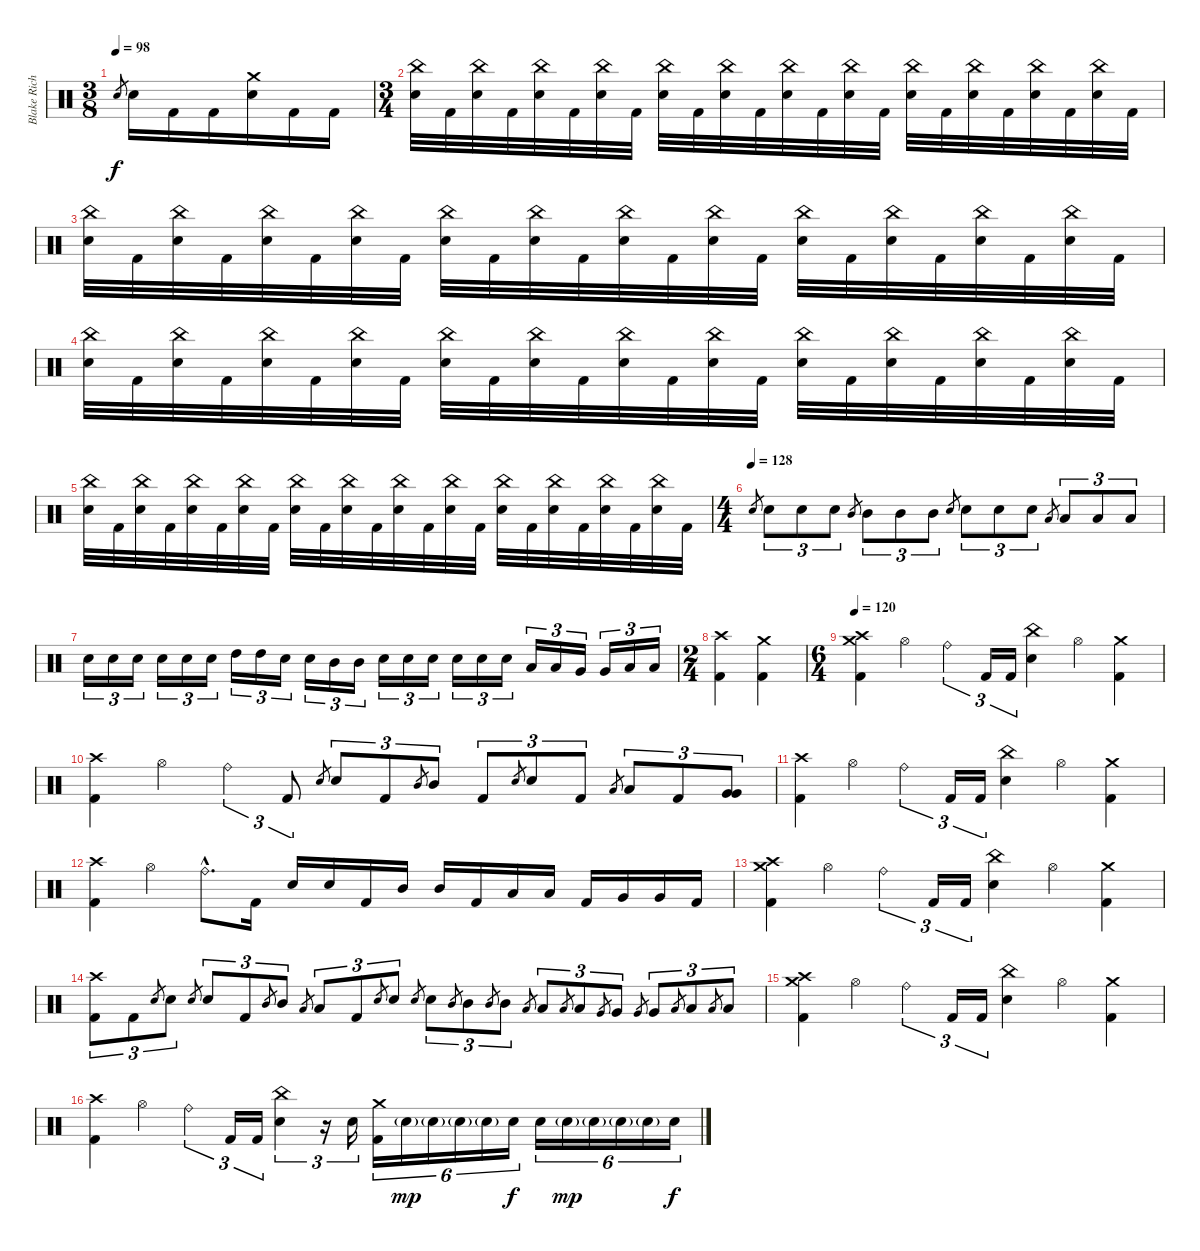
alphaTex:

\track ("Blake Richardson - Drums" "Blake Rich") {instrument percussion}
\staff {score}
\articulation defaults
\ts (3 8)
\tempo 98
\clef neutral
\ks c "Electric Snare (hit)".8{gr dy f} "Electric Snare (hit)".16 "Kick (hit) 2".16 "Kick (hit) 2".16
("Crash medium (hit)" "Electric Snare (hit)").16 "Kick (hit) 2".16 "Kick (hit) 2".16 |
\ts (3 4)
("China (hit)" "Electric Snare (hit)").32 "Kick (hit) 2".32 ("China (hit)" "Electric Snare (hit)").32 "Kick (hit) 2".32 ("China (hit)" "Electric Snare (hit)").32 "Kick (hit) 2".32 ("China (hit)" "Electric Snare (hit)").32 "Kick (hit) 2".32 ("China (hit)" "Electric Snare (hit)").32 "Kick (hit) 2".32 ("China (hit)" "Electric Snare (hit)").32 "Kick (hit) 2".32 ("China (hit)" "Electric Snare (hit)").32 "Kick (hit) 2".32 ("China (hit)" "Electric Snare (hit)").32 "Kick (hit) 2".32 ("China (hit)" "Electric Snare (hit)").32 "Kick (hit) 2".32 ("China (hit)" "Electric Snare (hit)").32 "Kick (hit) 2".32 ("China (hit)" "Electric Snare (hit)").32 "Kick (hit) 2".32 ("China (hit)" "Electric Snare (hit)").32 "Kick (hit) 2".32 |
("China (hit)" "Electric Snare (hit)").32 "Kick (hit) 2".32 ("China (hit)" "Electric Snare (hit)").32 "Kick (hit) 2".32 ("China (hit)" "Electric Snare (hit)").32 "Kick (hit) 2".32 ("China (hit)" "Electric Snare (hit)").32 "Kick (hit) 2".32 ("China (hit)" "Electric Snare (hit)").32 "Kick (hit) 2".32 ("China (hit)" "Electric Snare (hit)").32 "Kick (hit) 2".32 ("China (hit)" "Electric Snare (hit)").32 "Kick (hit) 2".32 ("China (hit)" "Electric Snare (hit)").32 "Kick (hit) 2".32 ("China (hit)" "Electric Snare (hit)").32 "Kick (hit) 2".32 ("China (hit)" "Electric Snare (hit)").32 "Kick (hit) 2".32 ("China (hit)" "Electric Snare (hit)").32 "Kick (hit) 2".32 ("China (hit)" "Electric Snare (hit)").32 "Kick (hit) 2".32 |
("China (hit)" "Electric Snare (hit)").32 "Kick (hit) 2".32 ("China (hit)" "Electric Snare (hit)").32 "Kick (hit) 2".32 ("China (hit)" "Electric Snare (hit)").32 "Kick (hit) 2".32 ("China (hit)" "Electric Snare (hit)").32 "Kick (hit) 2".32 ("China (hit)" "Electric Snare (hit)").32 "Kick (hit) 2".32 ("China (hit)" "Electric Snare (hit)").32 "Kick (hit) 2".32 ("China (hit)" "Electric Snare (hit)").32 "Kick (hit) 2".32 ("China (hit)" "Electric Snare (hit)").32 "Kick (hit) 2".32 ("China (hit)" "Electric Snare (hit)").32 "Kick (hit) 2".32 ("China (hit)" "Electric Snare (hit)").32 "Kick (hit) 2".32 ("China (hit)" "Electric Snare (hit)").32 "Kick (hit) 2".32 ("China (hit)" "Electric Snare (hit)").32 "Kick (hit) 2".32 |
("China (hit)" "Electric Snare (hit)").32 "Kick (hit) 2".32 ("China (hit)" "Electric Snare (hit)").32 "Kick (hit) 2".32 ("China (hit)" "Electric Snare (hit)").32 "Kick (hit) 2".32 ("China (hit)" "Electric Snare (hit)").32 "Kick (hit) 2".32 ("China (hit)" "Electric Snare (hit)").32 "Kick (hit) 2".32 ("China (hit)" "Electric Snare (hit)").32 "Kick (hit) 2".32 ("China (hit)" "Electric Snare (hit)").32 "Kick (hit) 2".32 ("China (hit)" "Electric Snare (hit)").32 "Kick (hit) 2".32 ("China (hit)" "Electric Snare (hit)").32 "Kick (hit) 2".32 ("China (hit)" "Electric Snare (hit)").32 "Kick (hit) 2".32 ("China (hit)" "Electric Snare (hit)").32 "Kick (hit) 2".32 ("China (hit)" "Electric Snare (hit)").32 "Kick (hit) 2".32 |
\ts (4 4)
\tempo (128)
"Electric Snare (hit)".8{gr} "Electric Snare (hit)".8{tu (3 2)} "Electric Snare (hit)".8{tu (3 2)} "Electric Snare (hit)".8{tu (3 2)} "Mid Tom (hit)".8{gr} "Mid Tom (hit)".8{tu (3 2)} "Mid Tom (hit)".8{tu (3 2)} "Mid Tom (hit)".8{tu (3 2)} "Electric Snare (hit)".8{gr} "Electric Snare (hit)".8{tu (3 2)} "Electric Snare (hit)".8{tu (3 2)} "Electric Snare (hit)".8{tu (3 2)} "Low Tom (hit)".8{gr} "Low Tom (hit)".8{tu (3 2)} "Low Tom (hit)".8{tu (3 2)} "Low Tom (hit)".8{tu (3 2)} |
"Electric Snare (hit)".16{tu (3 2)} "Electric Snare (hit)".16{tu (3 2)} "Electric Snare (hit)".16{tu (3 2)} "Electric Snare (hit)".16{tu (3 2)} "Electric Snare (hit)".16{tu (3 2)} "Electric Snare (hit)".16{tu (3 2)} "High Tom (hit)".16{tu (3 2)} "High Tom (hit)".16{tu (3 2)} "Electric Snare (hit)".16{tu (3 2)} "Electric Snare (hit)".16{tu (3 2)} "Mid Tom (hit)".16{tu (3 2)} "Mid Tom (hit)".16{tu (3 2)} "Electric Snare (hit)".16{tu (3 2)} "Electric Snare (hit)".16{tu (3 2)} "Electric Snare (hit)".16{tu (3 2)} "Electric Snare (hit)".16{tu (3 2)} "Electric Snare (hit)".16{tu (3 2)} "Electric Snare (hit)".16{tu (3 2)} "Low Tom (hit)".16{tu (3 2)} "Low Tom (hit)".16{tu (3 2)} "Very Low Tom (hit)".16{tu (3 2)} "Very Low Tom (hit)".16{tu (3 2)} "Low Floor Tom (hit)".16{tu (3 2)} "Low Floor Tom (hit)".16{tu (3 2)} |
\ts (2 4)
("Crash high (hit)" "Kick (hit) 2").4 ("Crash medium (hit)" "Kick (hit) 2").4 |
\ts (6 4)
\tempo 120
("Crash high (hit)" "Crash medium (hit)" "Kick (hit) 2").4 "Hi-Hat (open)".4 "Ride (bell)".4{tu (3 2)} "Kick (hit) 2".16{tu (3 2)} "Kick (hit) 2".16{tu (3 2)} ("China (hit)" "Electric Snare (hit)").4 "Hi-Hat (open)".4 ("Crash medium (hit)" "Kick (hit) 2").4 |
("Crash high (hit)" "Kick (hit) 2").4 "Hi-Hat (open)".4 "Ride (bell)".4{tu (3 2)} "Kick (hit) 2".8{tu (3 2)} "Electric Snare (hit)".8{gr} "Electric Snare (hit)".8{tu (3 2)} "Kick (hit) 2".8{tu (3 2)} "Mid Tom (hit)".8{gr} "Mid Tom (hit)".8{tu (3 2)} "Kick (hit) 2".8{tu (3 2)} "Electric Snare (hit)".8{gr} "Electric Snare (hit)".8{tu (3 2)} "Kick (hit) 2".8{tu (3 2)} "Low Tom (hit)".8{gr} "Low Tom (hit)".8{tu (3 2)} "Kick (hit) 2".8{tu (3 2)} ("Very Low Tom (hit)" "Very Low Tom (hit)").8{tu (3 2)} |
("Crash high (hit)" "Kick (hit) 2").4 "Hi-Hat (open)".4 "Ride (bell)".4{tu (3 2)} "Kick (hit) 2".16{tu (3 2)} "Kick (hit) 2".16{tu (3 2)} ("China (hit)" "Electric Snare (hit)").4 "Hi-Hat (open)".4 ("Crash medium (hit)" "Kick (hit) 2").4 |
("Crash high (hit)" "Kick (hit) 2").4 "Hi-Hat (open)".4 "Ride (bell)"{hac}.8{d} "Kick (hit) 2".16 "Electric Snare (hit)".16 "Electric Snare (hit)".16 "Kick (hit) 2".16 "Mid Tom (hit)".16 "Mid Tom (hit)".16 "Kick (hit) 2".16 "Low Tom (hit)".16 "Low Tom (hit)".16 "Kick (hit) 2".16 "Very Low Tom (hit)".16 "Very Low Tom (hit)".16 "Kick (hit) 2".16 |
("Crash high (hit)" "Crash medium (hit)" "Kick (hit) 2").4 "Hi-Hat (open)".4 "Ride (bell)".4{tu (3 2)} "Kick (hit) 2".16{tu (3 2)} "Kick (hit) 2".16{tu (3 2)} ("China (hit)" "Electric Snare (hit)").4 "Hi-Hat (open)".4 ("Crash medium (hit)" "Kick (hit) 2").4 |
("Crash high (hit)" "Kick (hit) 2").8{tu (3 2)} "Kick (hit) 2".8{tu (3 2)} "Electric Snare (hit)".8{gr} "Electric Snare (hit)".8{tu (3 2)} "Electric Snare (hit)".8{gr} "Electric Snare (hit)".8{tu (3 2)} "Kick (hit) 2".8{tu (3 2)} "Mid Tom (hit)".8{gr} "Mid Tom (hit)".8{tu (3 2)} "Low Tom (hit)".8{gr} "Low Tom (hit)".8{tu (3 2)} "Kick (hit) 2".8{tu (3 2)} "Electric Snare (hit)".8{gr} "Electric Snare (hit)".8{tu (3 2)} "Electric Snare (hit)".8{gr} "Electric Snare (hit)".8{tu (3 2)} "Mid Tom (hit)".8{gr} "Mid Tom (hit)".8{tu (3 2)} "Mid Tom (hit)".8{gr} "Mid Tom (hit)".8{tu (3 2)} "Low Tom (hit)".8{gr} "Low Tom (hit)".8{tu (3 2)} "Low Tom (hit)".8{gr} "Low Tom (hit)".8{tu (3 2)} "Very Low Tom (hit)".8{gr} "Very Low Tom (hit)".8{tu (3 2)} "Very Low Tom (hit)".8{gr} "Very Low Tom (hit)".8{tu (3 2)} "Low Floor Tom (hit)".8{gr} "Low Floor Tom (hit)".8{tu (3 2)} "Low Floor Tom (hit)".8{gr} "Low Floor Tom (hit)".8{tu (3 2)} |
("Crash high (hit)" "Crash medium (hit)" "Kick (hit) 2").4 "Hi-Hat (open)".4 "Ride (bell)".4{tu (3 2)} "Kick (hit) 2".16{tu (3 2)} "Kick (hit) 2".16{tu (3 2)} ("China (hit)" "Electric Snare (hit)").4 "Hi-Hat (open)".4 ("Crash medium (hit)" "Kick (hit) 2").4 |
("Crash high (hit)" "Kick (hit) 2").4 "Hi-Hat (open)".4 "Ride (bell)".4{tu (3 2)} "Kick (hit) 2".16{tu (3 2)} "Kick (hit) 2".16{tu (3 2)} ("China (hit)" "Electric Snare (hit)").4{tu (3 2)} r.16{tu (3 2)} "Electric Snare (hit)".16{tu (3 2)} ("Crash medium (hit)" "Kick (hit) 2").16{tu (6 4)} "Electric Snare (hit)"{g}.16{tu (6 4) dy mp} "Electric Snare (hit)"{g}.16{tu (6 4)} "Electric Snare (hit)"{g}.16{tu (6 4)} "Electric Snare (hit)"{g}.16{tu (6 4)} "Electric Snare (hit)".16{tu (6 4) dy f} "Electric Snare (hit)".16{tu (6 4)} "Electric Snare (hit)"{g}.16{tu (6 4) dy mp} "Electric Snare (hit)"{g}.16{tu (6 4)} "Electric Snare (hit)"{g}.16{tu (6 4)} "Electric Snare (hit)"{g}.16{tu (6 4)} "Electric Snare (hit)".16{tu (6 4) dy f}
